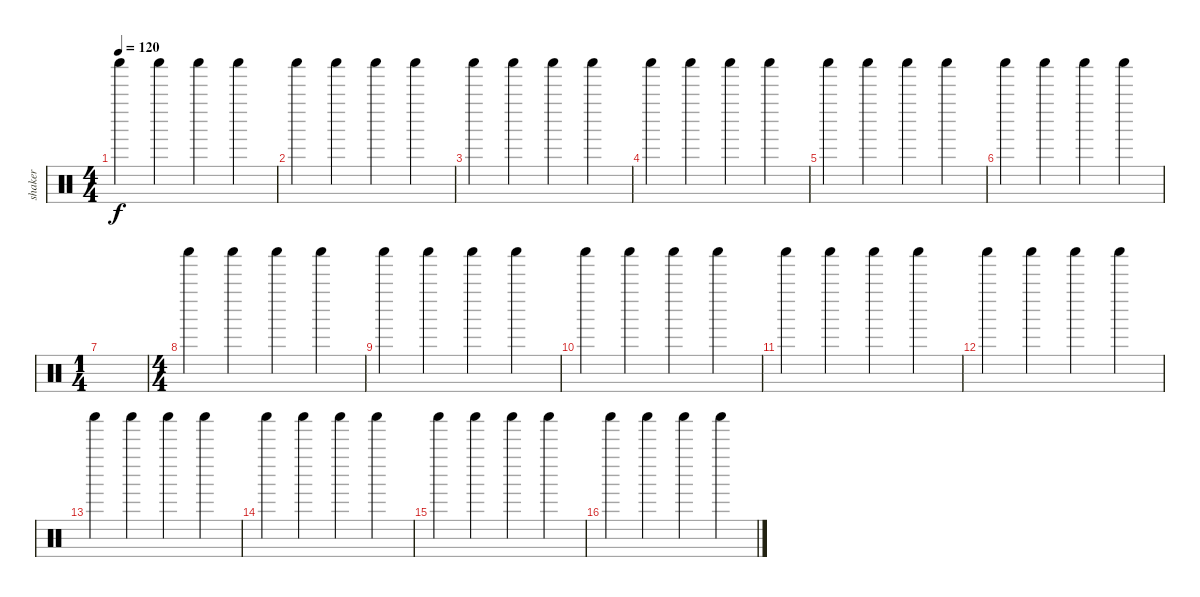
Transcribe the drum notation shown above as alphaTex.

\track ("shaker" "shaker") {instrument percussion}
\staff {score}
\articulation defaults
\ts (4 4)
\tempo 120
\clef neutral
\ks c "Shaker (hit)".4{dy f} "Shaker (hit)".4 "Shaker (hit)".4 "Shaker (hit)".4
|
"Shaker (hit)".4 "Shaker (hit)".4 "Shaker (hit)".4 "Shaker (hit)".4 |
"Shaker (hit)".4 "Shaker (hit)".4 "Shaker (hit)".4 "Shaker (hit)".4 |
"Shaker (hit)".4 "Shaker (hit)".4 "Shaker (hit)".4 "Shaker (hit)".4 |
"Shaker (hit)".4 "Shaker (hit)".4 "Shaker (hit)".4 "Shaker (hit)".4 |
"Shaker (hit)".4 "Shaker (hit)".4 "Shaker (hit)".4 "Shaker (hit)".4 |
\ts (1 4)
|
\ts (4 4)
"Shaker (hit)".4 "Shaker (hit)".4 "Shaker (hit)".4 "Shaker (hit)".4 |
"Shaker (hit)".4 "Shaker (hit)".4 "Shaker (hit)".4 "Shaker (hit)".4 |
"Shaker (hit)".4 "Shaker (hit)".4 "Shaker (hit)".4 "Shaker (hit)".4 |
"Shaker (hit)".4 "Shaker (hit)".4 "Shaker (hit)".4 "Shaker (hit)".4 |
"Shaker (hit)".4 "Shaker (hit)".4 "Shaker (hit)".4 "Shaker (hit)".4 |
"Shaker (hit)".4 "Shaker (hit)".4 "Shaker (hit)".4 "Shaker (hit)".4 |
"Shaker (hit)".4 "Shaker (hit)".4 "Shaker (hit)".4 "Shaker (hit)".4 |
"Shaker (hit)".4 "Shaker (hit)".4 "Shaker (hit)".4 "Shaker (hit)".4 |
"Shaker (hit)".4 "Shaker (hit)".4 "Shaker (hit)".4 "Shaker (hit)".4
